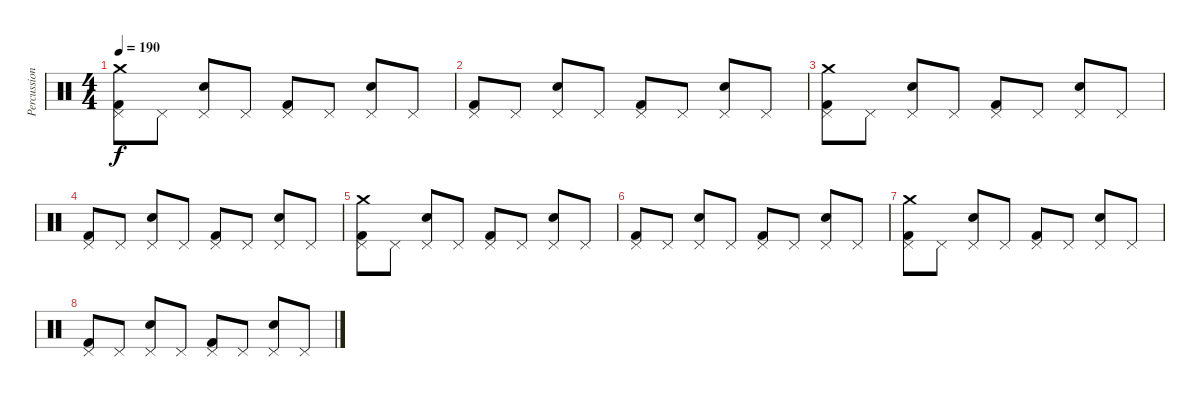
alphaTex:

\track ("Percussion" "Percussion") {instrument percussion}
\staff {score}
\articulation defaults
\ts (4 4)
\tempo 190
\clef neutral
\ks c
("Pedal Hi-Hat (hit)" "Kick (hit) 2" "Crash medium (hit)").8{dy f} "Pedal Hi-Hat (hit)".8 ("Pedal Hi-Hat (hit)" "Snare (hit) 2").8 "Pedal Hi-Hat (hit)".8 ("Pedal Hi-Hat (hit)" "Kick (hit) 2").8 "Pedal Hi-Hat (hit)".8 ("Pedal Hi-Hat (hit)" "Snare (hit) 2").8 "Pedal Hi-Hat (hit)".8 |
("Pedal Hi-Hat (hit)" "Kick (hit) 2").8 "Pedal Hi-Hat (hit)".8 ("Pedal Hi-Hat (hit)" "Snare (hit) 2").8 "Pedal Hi-Hat (hit)".8 ("Pedal Hi-Hat (hit)" "Kick (hit) 2").8 "Pedal Hi-Hat (hit)".8 ("Pedal Hi-Hat (hit)" "Snare (hit) 2").8 "Pedal Hi-Hat (hit)".8 |
("Pedal Hi-Hat (hit)" "Kick (hit) 2" "Crash medium (hit)").8 "Pedal Hi-Hat (hit)".8 ("Pedal Hi-Hat (hit)" "Snare (hit) 2").8 "Pedal Hi-Hat (hit)".8 ("Pedal Hi-Hat (hit)" "Kick (hit) 2").8 "Pedal Hi-Hat (hit)".8 ("Pedal Hi-Hat (hit)" "Snare (hit) 2").8 "Pedal Hi-Hat (hit)".8 |
("Pedal Hi-Hat (hit)" "Kick (hit) 2").8 "Pedal Hi-Hat (hit)".8 ("Pedal Hi-Hat (hit)" "Snare (hit) 2").8 "Pedal Hi-Hat (hit)".8 ("Pedal Hi-Hat (hit)" "Kick (hit) 2").8 "Pedal Hi-Hat (hit)".8 ("Pedal Hi-Hat (hit)" "Snare (hit) 2").8 "Pedal Hi-Hat (hit)".8 |
("Pedal Hi-Hat (hit)" "Kick (hit) 2" "Crash medium (hit)").8 "Pedal Hi-Hat (hit)".8 ("Pedal Hi-Hat (hit)" "Snare (hit) 2").8 "Pedal Hi-Hat (hit)".8 ("Pedal Hi-Hat (hit)" "Kick (hit) 2").8 "Pedal Hi-Hat (hit)".8 ("Pedal Hi-Hat (hit)" "Snare (hit) 2").8 "Pedal Hi-Hat (hit)".8 |
("Pedal Hi-Hat (hit)" "Kick (hit) 2").8 "Pedal Hi-Hat (hit)".8 ("Pedal Hi-Hat (hit)" "Snare (hit) 2").8 "Pedal Hi-Hat (hit)".8 ("Pedal Hi-Hat (hit)" "Kick (hit) 2").8 "Pedal Hi-Hat (hit)".8 ("Pedal Hi-Hat (hit)" "Snare (hit) 2").8 "Pedal Hi-Hat (hit)".8 |
("Pedal Hi-Hat (hit)" "Kick (hit) 2" "Crash medium (hit)").8 "Pedal Hi-Hat (hit)".8 ("Pedal Hi-Hat (hit)" "Snare (hit) 2").8 "Pedal Hi-Hat (hit)".8 ("Pedal Hi-Hat (hit)" "Kick (hit) 2").8 "Pedal Hi-Hat (hit)".8 ("Pedal Hi-Hat (hit)" "Snare (hit) 2").8 "Pedal Hi-Hat (hit)".8 |
("Pedal Hi-Hat (hit)" "Kick (hit) 2").8 "Pedal Hi-Hat (hit)".8 ("Pedal Hi-Hat (hit)" "Snare (hit) 2").8 "Pedal Hi-Hat (hit)".8 ("Pedal Hi-Hat (hit)" "Kick (hit) 2").8 "Pedal Hi-Hat (hit)".8 ("Pedal Hi-Hat (hit)" "Snare (hit) 2").8 "Pedal Hi-Hat (hit)".8
